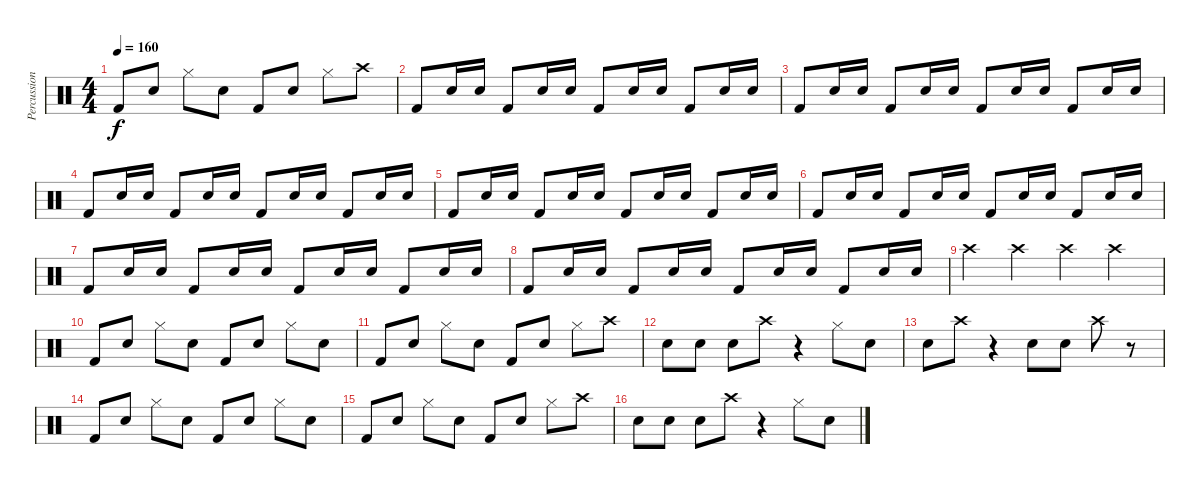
\track ("Percussion" "Percussion") {instrument percussion}
\staff {score}
\articulation defaults
\ts (4 4)
\tempo 160
\clef neutral
\ks c "Kick (hit) 2".8{dy f} "Electric Snare (hit)".8 "Hi-Hat (closed)".8 "Electric Snare (hit)".8 "Kick (hit) 2".8 "Electric Snare (hit)".8 "Hi-Hat (closed)".8 "Crash high (hit)".8
|
"Kick (hit) 2".8 "Electric Snare (hit)".16 "Electric Snare (hit)".16 "Kick (hit) 2".8 "Electric Snare (hit)".16 "Electric Snare (hit)".16 "Kick (hit) 2".8 "Electric Snare (hit)".16 "Electric Snare (hit)".16 "Kick (hit) 2".8 "Electric Snare (hit)".16 "Electric Snare (hit)".16 |
"Kick (hit) 2".8 "Electric Snare (hit)".16 "Electric Snare (hit)".16 "Kick (hit) 2".8 "Electric Snare (hit)".16 "Electric Snare (hit)".16 "Kick (hit) 2".8 "Electric Snare (hit)".16 "Electric Snare (hit)".16 "Kick (hit) 2".8 "Electric Snare (hit)".16 "Electric Snare (hit)".16 |
"Kick (hit) 2".8 "Electric Snare (hit)".16 "Electric Snare (hit)".16 "Kick (hit) 2".8 "Electric Snare (hit)".16 "Electric Snare (hit)".16 "Kick (hit) 2".8 "Electric Snare (hit)".16 "Electric Snare (hit)".16 "Kick (hit) 2".8 "Electric Snare (hit)".16 "Electric Snare (hit)".16 |
"Kick (hit) 2".8 "Electric Snare (hit)".16 "Electric Snare (hit)".16 "Kick (hit) 2".8 "Electric Snare (hit)".16 "Electric Snare (hit)".16 "Kick (hit) 2".8 "Electric Snare (hit)".16 "Electric Snare (hit)".16 "Kick (hit) 2".8 "Electric Snare (hit)".16 "Electric Snare (hit)".16 |
"Kick (hit) 2".8 "Electric Snare (hit)".16 "Electric Snare (hit)".16 "Kick (hit) 2".8 "Electric Snare (hit)".16 "Electric Snare (hit)".16 "Kick (hit) 2".8 "Electric Snare (hit)".16 "Electric Snare (hit)".16 "Kick (hit) 2".8 "Electric Snare (hit)".16 "Electric Snare (hit)".16 |
"Kick (hit) 2".8 "Electric Snare (hit)".16 "Electric Snare (hit)".16 "Kick (hit) 2".8 "Electric Snare (hit)".16 "Electric Snare (hit)".16 "Kick (hit) 2".8 "Electric Snare (hit)".16 "Electric Snare (hit)".16 "Kick (hit) 2".8 "Electric Snare (hit)".16 "Electric Snare (hit)".16 |
"Kick (hit) 2".8 "Electric Snare (hit)".16 "Electric Snare (hit)".16 "Kick (hit) 2".8 "Electric Snare (hit)".16 "Electric Snare (hit)".16 "Kick (hit) 2".8 "Electric Snare (hit)".16 "Electric Snare (hit)".16 "Kick (hit) 2".8 "Electric Snare (hit)".16 "Electric Snare (hit)".16 |
"Crash high (hit)".4 "Crash high (hit)".4 "Crash high (hit)".4 "Crash high (hit)".4 |
"Kick (hit) 2".8 "Electric Snare (hit)".8 "Hi-Hat (closed)".8 "Electric Snare (hit)".8 "Kick (hit) 2".8 "Electric Snare (hit)".8 "Hi-Hat (closed)".8 "Electric Snare (hit)".8 |
"Kick (hit) 2".8 "Electric Snare (hit)".8 "Hi-Hat (closed)".8 "Electric Snare (hit)".8 "Kick (hit) 2".8 "Electric Snare (hit)".8 "Hi-Hat (closed)".8 "Crash high (hit)".8 |
"Electric Snare (hit)".8 "Electric Snare (hit)".8 "Electric Snare (hit)".8 "Crash high (hit)".8 r.4 "Hi-Hat (closed)".8 "Electric Snare (hit)".8 |
"Electric Snare (hit)".8 "Crash high (hit)".8 r.4 "Electric Snare (hit)".8 "Electric Snare (hit)".8 "Crash high (hit)".8 r.8 |
"Kick (hit) 2".8 "Electric Snare (hit)".8 "Hi-Hat (closed)".8 "Electric Snare (hit)".8 "Kick (hit) 2".8 "Electric Snare (hit)".8 "Hi-Hat (closed)".8 "Electric Snare (hit)".8 |
"Kick (hit) 2".8 "Electric Snare (hit)".8 "Hi-Hat (closed)".8 "Electric Snare (hit)".8 "Kick (hit) 2".8 "Electric Snare (hit)".8 "Hi-Hat (closed)".8 "Crash high (hit)".8 |
"Electric Snare (hit)".8 "Electric Snare (hit)".8 "Electric Snare (hit)".8 "Crash high (hit)".8 r.4 "Hi-Hat (closed)".8 "Electric Snare (hit)".8
